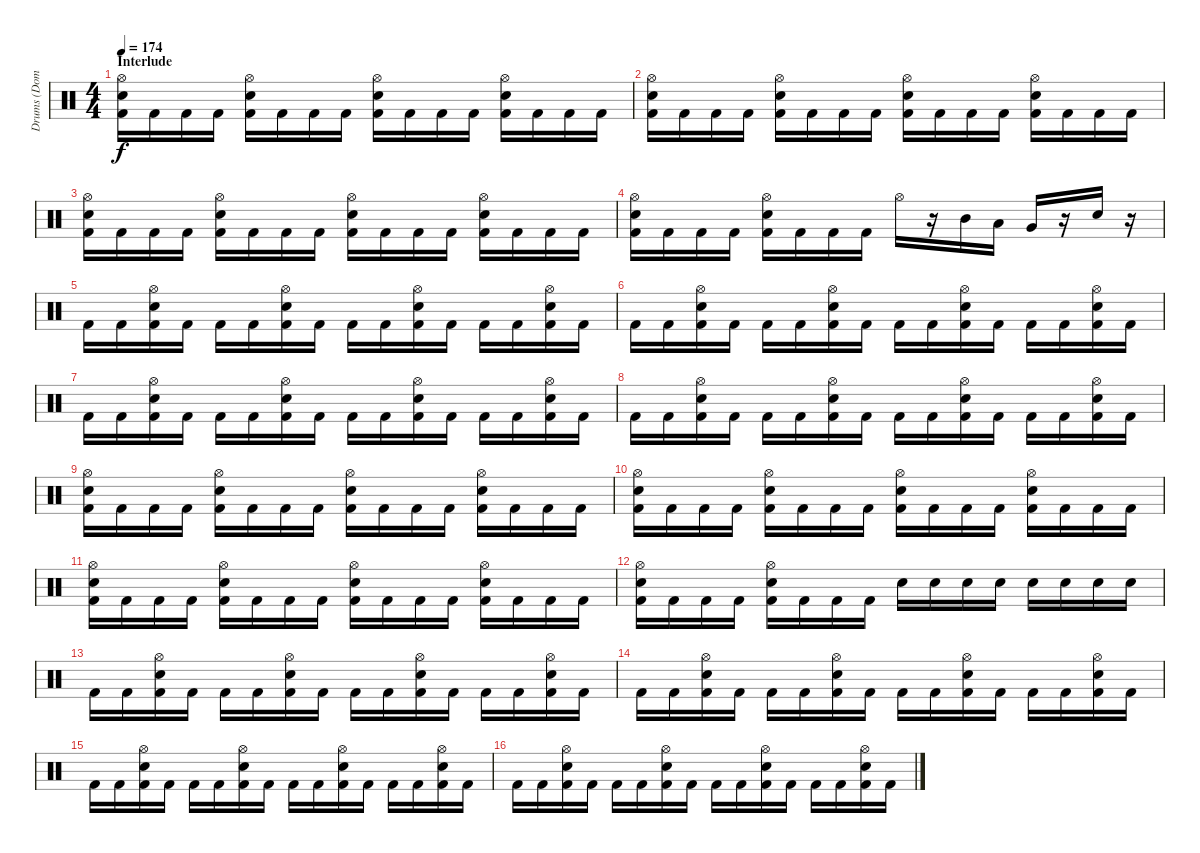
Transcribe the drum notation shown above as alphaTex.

\track ("Drums (Dominik)" "Drums (Dom") {instrument percussion}
\staff {score}
\articulation defaults
\ts (4 4)
\section ("" "Interlude")
\tempo 174
\clef neutral
\ks c
("Hi-Hat (open)" "Electric Snare (hit)" "Kick (hit) 2").16{dy f} "Kick (hit) 2".16 "Kick (hit) 2".16 "Kick (hit) 2".16 ("Hi-Hat (open)" "Electric Snare (hit)" "Kick (hit) 2").16 "Kick (hit) 2".16 "Kick (hit) 2".16 "Kick (hit) 2".16 ("Hi-Hat (open)" "Electric Snare (hit)" "Kick (hit) 2").16 "Kick (hit) 2".16 "Kick (hit) 2".16 "Kick (hit) 2".16 ("Hi-Hat (open)" "Electric Snare (hit)" "Kick (hit) 2").16 "Kick (hit) 2".16 "Kick (hit) 2".16 "Kick (hit) 2".16 |
("Hi-Hat (open)" "Electric Snare (hit)" "Kick (hit) 2").16 "Kick (hit) 2".16 "Kick (hit) 2".16 "Kick (hit) 2".16 ("Hi-Hat (open)" "Electric Snare (hit)" "Kick (hit) 2").16 "Kick (hit) 2".16 "Kick (hit) 2".16 "Kick (hit) 2".16 ("Hi-Hat (open)" "Electric Snare (hit)" "Kick (hit) 2").16 "Kick (hit) 2".16 "Kick (hit) 2".16 "Kick (hit) 2".16 ("Hi-Hat (open)" "Electric Snare (hit)" "Kick (hit) 2").16 "Kick (hit) 2".16 "Kick (hit) 2".16 "Kick (hit) 2".16 |
("Hi-Hat (open)" "Electric Snare (hit)" "Kick (hit) 2").16 "Kick (hit) 2".16 "Kick (hit) 2".16 "Kick (hit) 2".16 ("Hi-Hat (open)" "Electric Snare (hit)" "Kick (hit) 2").16 "Kick (hit) 2".16 "Kick (hit) 2".16 "Kick (hit) 2".16 ("Hi-Hat (open)" "Electric Snare (hit)" "Kick (hit) 2").16 "Kick (hit) 2".16 "Kick (hit) 2".16 "Kick (hit) 2".16 ("Hi-Hat (open)" "Electric Snare (hit)" "Kick (hit) 2").16 "Kick (hit) 2".16 "Kick (hit) 2".16 "Kick (hit) 2".16 |
("Hi-Hat (open)" "Electric Snare (hit)" "Kick (hit) 2").16 "Kick (hit) 2".16 "Kick (hit) 2".16 "Kick (hit) 2".16 ("Hi-Hat (open)" "Electric Snare (hit)" "Kick (hit) 2").16 "Kick (hit) 2".16 "Kick (hit) 2".16 "Kick (hit) 2".16 "Hi-Hat (open)".16 r.16 "Mid Tom (hit)".16 "Low Tom (hit)".16 "Very Low Tom (hit)".16 r.16 "Electric Snare (hit)".16 r.16 |
"Kick (hit) 2".16 "Kick (hit) 2".16 ("Hi-Hat (open)" "Electric Snare (hit)" "Kick (hit) 2").16 "Kick (hit) 2".16 "Kick (hit) 2".16 "Kick (hit) 2".16 ("Hi-Hat (open)" "Electric Snare (hit)" "Kick (hit) 2").16 "Kick (hit) 2".16 "Kick (hit) 2".16 "Kick (hit) 2".16 ("Hi-Hat (open)" "Electric Snare (hit)" "Kick (hit) 2").16 "Kick (hit) 2".16 "Kick (hit) 2".16 "Kick (hit) 2".16 ("Hi-Hat (open)" "Electric Snare (hit)" "Kick (hit) 2").16 "Kick (hit) 2".16 |
"Kick (hit) 2".16 "Kick (hit) 2".16 ("Hi-Hat (open)" "Electric Snare (hit)" "Kick (hit) 2").16 "Kick (hit) 2".16 "Kick (hit) 2".16 "Kick (hit) 2".16 ("Hi-Hat (open)" "Electric Snare (hit)" "Kick (hit) 2").16 "Kick (hit) 2".16 "Kick (hit) 2".16 "Kick (hit) 2".16 ("Hi-Hat (open)" "Electric Snare (hit)" "Kick (hit) 2").16 "Kick (hit) 2".16 "Kick (hit) 2".16 "Kick (hit) 2".16 ("Hi-Hat (open)" "Electric Snare (hit)" "Kick (hit) 2").16 "Kick (hit) 2".16 |
"Kick (hit) 2".16 "Kick (hit) 2".16 ("Hi-Hat (open)" "Electric Snare (hit)" "Kick (hit) 2").16 "Kick (hit) 2".16 "Kick (hit) 2".16 "Kick (hit) 2".16 ("Hi-Hat (open)" "Electric Snare (hit)" "Kick (hit) 2").16 "Kick (hit) 2".16 "Kick (hit) 2".16 "Kick (hit) 2".16 ("Hi-Hat (open)" "Electric Snare (hit)" "Kick (hit) 2").16 "Kick (hit) 2".16 "Kick (hit) 2".16 "Kick (hit) 2".16 ("Hi-Hat (open)" "Electric Snare (hit)" "Kick (hit) 2").16 "Kick (hit) 2".16 |
"Kick (hit) 2".16 "Kick (hit) 2".16 ("Hi-Hat (open)" "Electric Snare (hit)" "Kick (hit) 2").16 "Kick (hit) 2".16 "Kick (hit) 2".16 "Kick (hit) 2".16 ("Hi-Hat (open)" "Electric Snare (hit)" "Kick (hit) 2").16 "Kick (hit) 2".16 "Kick (hit) 2".16 "Kick (hit) 2".16 ("Hi-Hat (open)" "Electric Snare (hit)" "Kick (hit) 2").16 "Kick (hit) 2".16 "Kick (hit) 2".16 "Kick (hit) 2".16 ("Hi-Hat (open)" "Electric Snare (hit)" "Kick (hit) 2").16 "Kick (hit) 2".16 |
("Hi-Hat (open)" "Electric Snare (hit)" "Kick (hit) 2").16 "Kick (hit) 2".16 "Kick (hit) 2".16 "Kick (hit) 2".16 ("Hi-Hat (open)" "Electric Snare (hit)" "Kick (hit) 2").16 "Kick (hit) 2".16 "Kick (hit) 2".16 "Kick (hit) 2".16 ("Hi-Hat (open)" "Electric Snare (hit)" "Kick (hit) 2").16 "Kick (hit) 2".16 "Kick (hit) 2".16 "Kick (hit) 2".16 ("Hi-Hat (open)" "Electric Snare (hit)" "Kick (hit) 2").16 "Kick (hit) 2".16 "Kick (hit) 2".16 "Kick (hit) 2".16 |
("Hi-Hat (open)" "Electric Snare (hit)" "Kick (hit) 2").16 "Kick (hit) 2".16 "Kick (hit) 2".16 "Kick (hit) 2".16 ("Hi-Hat (open)" "Electric Snare (hit)" "Kick (hit) 2").16 "Kick (hit) 2".16 "Kick (hit) 2".16 "Kick (hit) 2".16 ("Hi-Hat (open)" "Electric Snare (hit)" "Kick (hit) 2").16 "Kick (hit) 2".16 "Kick (hit) 2".16 "Kick (hit) 2".16 ("Hi-Hat (open)" "Electric Snare (hit)" "Kick (hit) 2").16 "Kick (hit) 2".16 "Kick (hit) 2".16 "Kick (hit) 2".16 |
("Hi-Hat (open)" "Electric Snare (hit)" "Kick (hit) 2").16 "Kick (hit) 2".16 "Kick (hit) 2".16 "Kick (hit) 2".16 ("Hi-Hat (open)" "Electric Snare (hit)" "Kick (hit) 2").16 "Kick (hit) 2".16 "Kick (hit) 2".16 "Kick (hit) 2".16 ("Hi-Hat (open)" "Electric Snare (hit)" "Kick (hit) 2").16 "Kick (hit) 2".16 "Kick (hit) 2".16 "Kick (hit) 2".16 ("Hi-Hat (open)" "Electric Snare (hit)" "Kick (hit) 2").16 "Kick (hit) 2".16 "Kick (hit) 2".16 "Kick (hit) 2".16 |
("Hi-Hat (open)" "Electric Snare (hit)" "Kick (hit) 2").16 "Kick (hit) 2".16 "Kick (hit) 2".16 "Kick (hit) 2".16 ("Hi-Hat (open)" "Electric Snare (hit)" "Kick (hit) 2").16 "Kick (hit) 2".16 "Kick (hit) 2".16 "Kick (hit) 2".16 "Electric Snare (hit)".16 "Electric Snare (hit)".16 "Electric Snare (hit)".16 "Electric Snare (hit)".16 "Electric Snare (hit)".16 "Electric Snare (hit)".16 "Electric Snare (hit)".16 "Electric Snare (hit)".16 |
"Kick (hit) 2".16 "Kick (hit) 2".16 ("Hi-Hat (open)" "Electric Snare (hit)" "Kick (hit) 2").16 "Kick (hit) 2".16 "Kick (hit) 2".16 "Kick (hit) 2".16 ("Hi-Hat (open)" "Electric Snare (hit)" "Kick (hit) 2").16 "Kick (hit) 2".16 "Kick (hit) 2".16 "Kick (hit) 2".16 ("Hi-Hat (open)" "Electric Snare (hit)" "Kick (hit) 2").16 "Kick (hit) 2".16 "Kick (hit) 2".16 "Kick (hit) 2".16 ("Hi-Hat (open)" "Electric Snare (hit)" "Kick (hit) 2").16 "Kick (hit) 2".16 |
"Kick (hit) 2".16 "Kick (hit) 2".16 ("Hi-Hat (open)" "Electric Snare (hit)" "Kick (hit) 2").16 "Kick (hit) 2".16 "Kick (hit) 2".16 "Kick (hit) 2".16 ("Hi-Hat (open)" "Electric Snare (hit)" "Kick (hit) 2").16 "Kick (hit) 2".16 "Kick (hit) 2".16 "Kick (hit) 2".16 ("Hi-Hat (open)" "Electric Snare (hit)" "Kick (hit) 2").16 "Kick (hit) 2".16 "Kick (hit) 2".16 "Kick (hit) 2".16 ("Hi-Hat (open)" "Electric Snare (hit)" "Kick (hit) 2").16 "Kick (hit) 2".16 |
"Kick (hit) 2".16 "Kick (hit) 2".16 ("Hi-Hat (open)" "Electric Snare (hit)" "Kick (hit) 2").16 "Kick (hit) 2".16 "Kick (hit) 2".16 "Kick (hit) 2".16 ("Hi-Hat (open)" "Electric Snare (hit)" "Kick (hit) 2").16 "Kick (hit) 2".16 "Kick (hit) 2".16 "Kick (hit) 2".16 ("Hi-Hat (open)" "Electric Snare (hit)" "Kick (hit) 2").16 "Kick (hit) 2".16 "Kick (hit) 2".16 "Kick (hit) 2".16 ("Hi-Hat (open)" "Electric Snare (hit)" "Kick (hit) 2").16 "Kick (hit) 2".16 |
"Kick (hit) 2".16 "Kick (hit) 2".16 ("Hi-Hat (open)" "Electric Snare (hit)" "Kick (hit) 2").16 "Kick (hit) 2".16 "Kick (hit) 2".16 "Kick (hit) 2".16 ("Hi-Hat (open)" "Electric Snare (hit)" "Kick (hit) 2").16 "Kick (hit) 2".16 "Kick (hit) 2".16 "Kick (hit) 2".16 ("Hi-Hat (open)" "Electric Snare (hit)" "Kick (hit) 2").16 "Kick (hit) 2".16 "Kick (hit) 2".16 "Kick (hit) 2".16 ("Hi-Hat (open)" "Electric Snare (hit)" "Kick (hit) 2").16 "Kick (hit) 2".16
